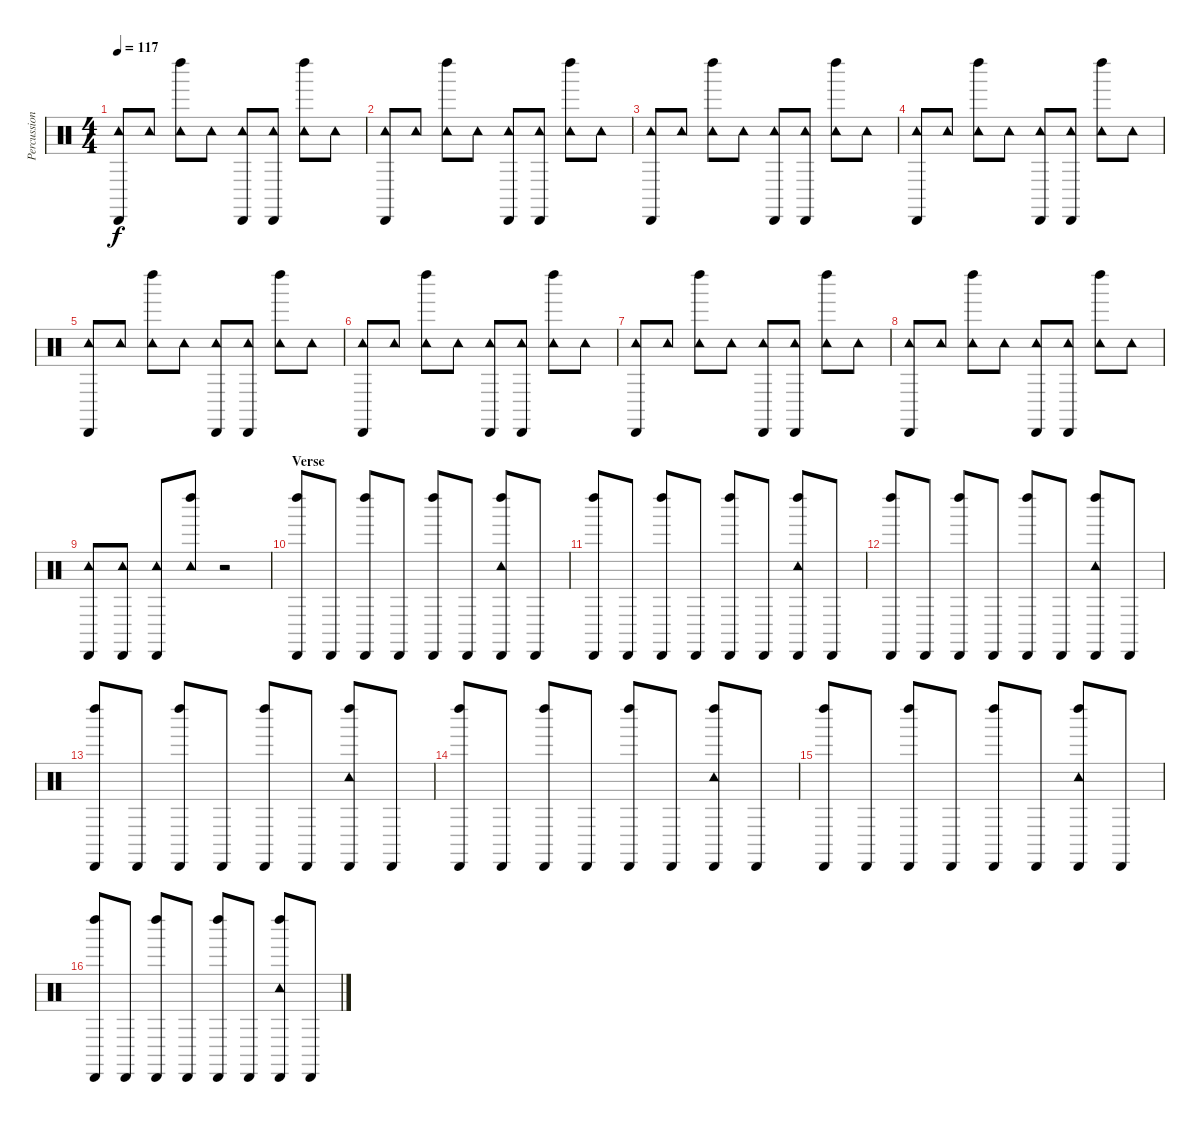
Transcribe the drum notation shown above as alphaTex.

\track ("Percussion" "Percussion") {instrument percussion}
\staff {score}
\articulation defaults
\ts (4 4)
\tempo 117
\clef neutral
\ks c
("Tambourine (hit)" "Cabasa (hit)").8{dy f} "Tambourine (hit)".8 ("Tambourine (hit)" "Left Maraca (hit)").8 "Tambourine (hit)".8 ("Tambourine (hit)" "Cabasa (hit)").8 ("Tambourine (hit)" "Cabasa (hit)").8 ("Tambourine (hit)" "Left Maraca (hit)").8 "Tambourine (hit)".8 |
("Tambourine (hit)" "Cabasa (hit)").8 "Tambourine (hit)".8 ("Tambourine (hit)" "Left Maraca (hit)").8 "Tambourine (hit)".8 ("Tambourine (hit)" "Cabasa (hit)").8 ("Tambourine (hit)" "Cabasa (hit)").8 ("Tambourine (hit)" "Left Maraca (hit)").8 "Tambourine (hit)".8 |
("Tambourine (hit)" "Cabasa (hit)").8 "Tambourine (hit)".8 ("Tambourine (hit)" "Left Maraca (hit)").8 "Tambourine (hit)".8 ("Tambourine (hit)" "Cabasa (hit)").8 ("Tambourine (hit)" "Cabasa (hit)").8 ("Tambourine (hit)" "Left Maraca (hit)").8 "Tambourine (hit)".8 |
("Tambourine (hit)" "Cabasa (hit)").8 "Tambourine (hit)".8 ("Tambourine (hit)" "Left Maraca (hit)").8 "Tambourine (hit)".8 ("Tambourine (hit)" "Cabasa (hit)").8 ("Tambourine (hit)" "Cabasa (hit)").8 ("Tambourine (hit)" "Left Maraca (hit)").8 "Tambourine (hit)".8 |
("Tambourine (hit)" "Cabasa (hit)").8 "Tambourine (hit)".8 ("Tambourine (hit)" "Left Maraca (hit)").8 "Tambourine (hit)".8 ("Tambourine (hit)" "Cabasa (hit)").8 ("Tambourine (hit)" "Cabasa (hit)").8 ("Tambourine (hit)" "Left Maraca (hit)").8 "Tambourine (hit)".8 |
("Tambourine (hit)" "Cabasa (hit)").8 "Tambourine (hit)".8 ("Tambourine (hit)" "Left Maraca (hit)").8 "Tambourine (hit)".8 ("Tambourine (hit)" "Cabasa (hit)").8 ("Tambourine (hit)" "Cabasa (hit)").8 ("Tambourine (hit)" "Left Maraca (hit)").8 "Tambourine (hit)".8 |
("Tambourine (hit)" "Cabasa (hit)").8 "Tambourine (hit)".8 ("Tambourine (hit)" "Left Maraca (hit)").8 "Tambourine (hit)".8 ("Tambourine (hit)" "Cabasa (hit)").8 ("Tambourine (hit)" "Cabasa (hit)").8 ("Tambourine (hit)" "Left Maraca (hit)").8 "Tambourine (hit)".8 |
("Tambourine (hit)" "Cabasa (hit)").8 "Tambourine (hit)".8 ("Tambourine (hit)" "Left Maraca (hit)").8 "Tambourine (hit)".8 ("Tambourine (hit)" "Cabasa (hit)").8 ("Tambourine (hit)" "Cabasa (hit)").8 ("Tambourine (hit)" "Left Maraca (hit)").8 "Tambourine (hit)".8 |
("Tambourine (hit)" "Cabasa (hit)").8 ("Tambourine (hit)" "Cabasa (hit)").8 ("Tambourine (hit)" "Cabasa (hit)").8 ("Tambourine (hit)" "Left Maraca (hit)").8 r.2 |
\section ("" "Verse")
("Cabasa (hit)" "Left Maraca (hit)").8 "Cabasa (hit)".8 ("Cabasa (hit)" "Left Maraca (hit)").8 "Cabasa (hit)".8 ("Cabasa (hit)" "Left Maraca (hit)").8 "Cabasa (hit)".8 ("Cabasa (hit)" "Left Maraca (hit)" "Tambourine (hit)").8 "Cabasa (hit)".8 |
("Cabasa (hit)" "Left Maraca (hit)").8 "Cabasa (hit)".8 ("Cabasa (hit)" "Left Maraca (hit)").8 "Cabasa (hit)".8 ("Cabasa (hit)" "Left Maraca (hit)").8 "Cabasa (hit)".8 ("Cabasa (hit)" "Left Maraca (hit)" "Tambourine (hit)").8 "Cabasa (hit)".8 |
("Cabasa (hit)" "Left Maraca (hit)").8 "Cabasa (hit)".8 ("Cabasa (hit)" "Left Maraca (hit)").8 "Cabasa (hit)".8 ("Cabasa (hit)" "Left Maraca (hit)").8 "Cabasa (hit)".8 ("Cabasa (hit)" "Left Maraca (hit)" "Tambourine (hit)").8 "Cabasa (hit)".8 |
("Cabasa (hit)" "Left Maraca (hit)").8 "Cabasa (hit)".8 ("Cabasa (hit)" "Left Maraca (hit)").8 "Cabasa (hit)".8 ("Cabasa (hit)" "Left Maraca (hit)").8 "Cabasa (hit)".8 ("Cabasa (hit)" "Left Maraca (hit)" "Tambourine (hit)").8 "Cabasa (hit)".8 |
("Cabasa (hit)" "Left Maraca (hit)").8 "Cabasa (hit)".8 ("Cabasa (hit)" "Left Maraca (hit)").8 "Cabasa (hit)".8 ("Cabasa (hit)" "Left Maraca (hit)").8 "Cabasa (hit)".8 ("Cabasa (hit)" "Left Maraca (hit)" "Tambourine (hit)").8 "Cabasa (hit)".8 |
("Cabasa (hit)" "Left Maraca (hit)").8 "Cabasa (hit)".8 ("Cabasa (hit)" "Left Maraca (hit)").8 "Cabasa (hit)".8 ("Cabasa (hit)" "Left Maraca (hit)").8 "Cabasa (hit)".8 ("Cabasa (hit)" "Left Maraca (hit)" "Tambourine (hit)").8 "Cabasa (hit)".8 |
("Cabasa (hit)" "Left Maraca (hit)").8 "Cabasa (hit)".8 ("Cabasa (hit)" "Left Maraca (hit)").8 "Cabasa (hit)".8 ("Cabasa (hit)" "Left Maraca (hit)").8 "Cabasa (hit)".8 ("Cabasa (hit)" "Left Maraca (hit)" "Tambourine (hit)").8 "Cabasa (hit)".8
